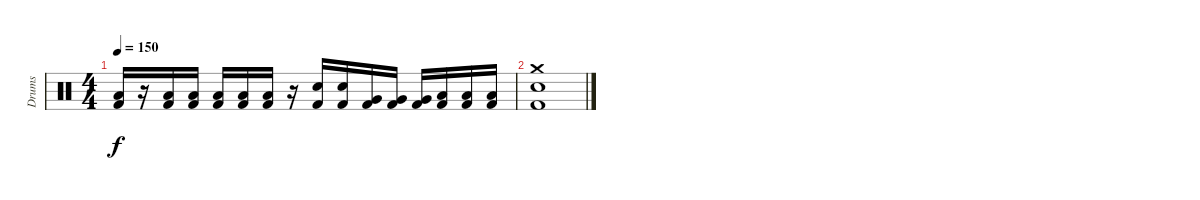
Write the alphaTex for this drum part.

\track ("Drums" "Drums") {instrument percussion}
\staff {score}
\articulation defaults
\ts (4 4)
\tempo 150
\clef neutral
\ks c
("Low Floor Tom (hit)" "Kick (hit) 2").16{dy f} r.16 ("Low Floor Tom (hit)" "Kick (hit) 2").16 ("Low Floor Tom (hit)" "Kick (hit) 2").16 ("Low Floor Tom (hit)" "Kick (hit) 2").16 ("Low Floor Tom (hit)" "Kick (hit) 2").16 ("Low Floor Tom (hit)" "Kick (hit) 2").16 r.16 ("Snare (hit) 2" "Kick (hit) 2").16 ("Snare (hit) 2" "Kick (hit) 2").16 ("Very Low Tom (hit)" "Kick (hit) 2").16 ("Very Low Tom (hit)" "Kick (hit) 2").16 ("Very Low Tom (hit)" "Kick (hit) 2").16 ("Low Floor Tom (hit)" "Kick (hit) 2").16 ("Low Floor Tom (hit)" "Kick (hit) 2").16 ("Low Floor Tom (hit)" "Kick (hit) 2").16 |
("Kick (hit) 2" "Snare (hit) 2" "Crash medium (hit)").1
